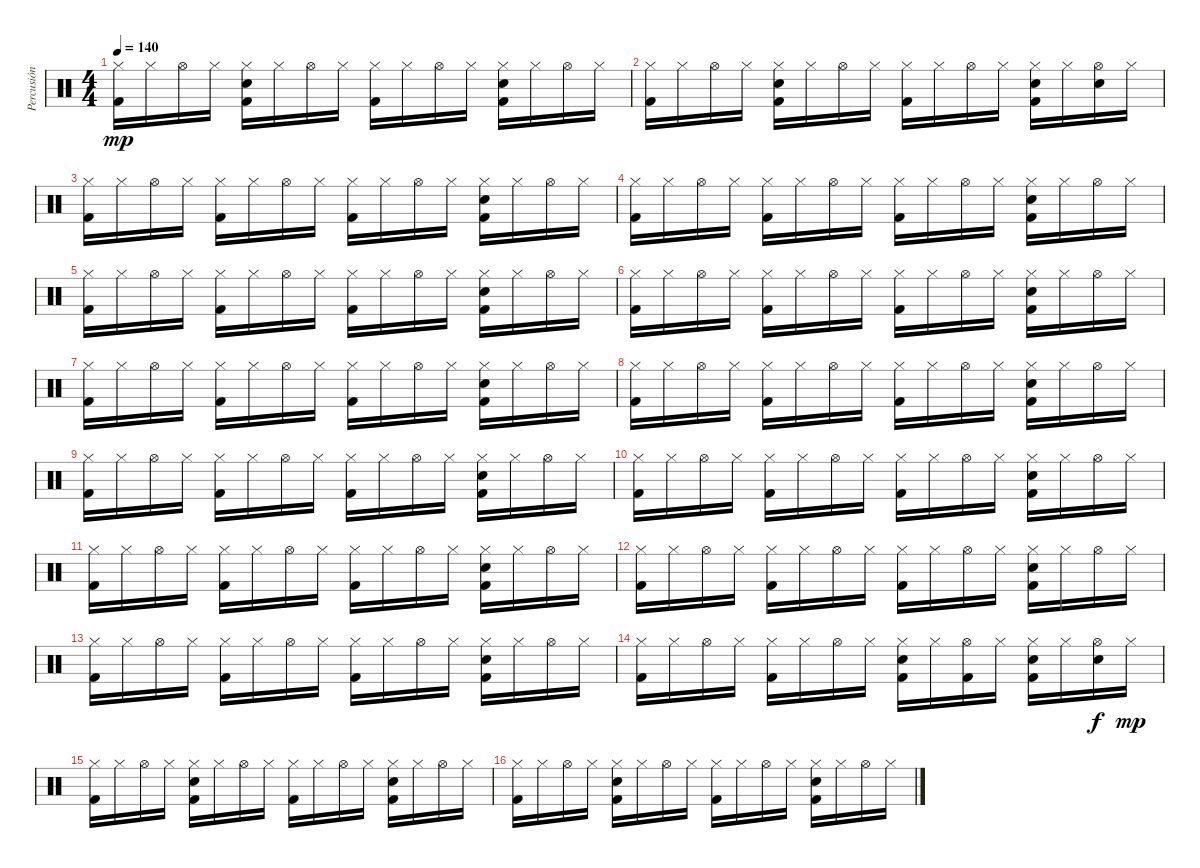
\track ("Percusión" "Percusión") {instrument percussion}
\staff {score}
\articulation defaults
\ts (4 4)
\tempo 140
\clef neutral
\ks c
("Hi-Hat (closed)" "Kick (hit) 2").16{dy mp} "Hi-Hat (closed)".16 "Hi-Hat (open)".16 "Hi-Hat (closed)".16 ("Hi-Hat (closed)" "Electric Snare (hit)" "Kick (hit) 2").16 "Hi-Hat (closed)".16 "Hi-Hat (open)".16 "Hi-Hat (closed)".16 ("Hi-Hat (closed)" "Kick (hit) 2").16 "Hi-Hat (closed)".16 "Hi-Hat (open)".16 "Hi-Hat (closed)".16 ("Hi-Hat (closed)" "Electric Snare (hit)" "Kick (hit) 2").16 "Hi-Hat (closed)".16 "Hi-Hat (open)".16 "Hi-Hat (closed)".16 |
("Hi-Hat (closed)" "Kick (hit) 2").16 "Hi-Hat (closed)".16 "Hi-Hat (open)".16 "Hi-Hat (closed)".16 ("Hi-Hat (closed)" "Electric Snare (hit)" "Kick (hit) 2").16 "Hi-Hat (closed)".16 "Hi-Hat (open)".16 "Hi-Hat (closed)".16 ("Hi-Hat (closed)" "Kick (hit) 2").16 "Hi-Hat (closed)".16 "Hi-Hat (open)".16 "Hi-Hat (closed)".16 ("Hi-Hat (closed)" "Electric Snare (hit)" "Kick (hit) 2").16 "Hi-Hat (closed)".16 ("Hi-Hat (open)" "Electric Snare (hit)").16 "Hi-Hat (closed)".16 |
("Hi-Hat (closed)" "Kick (hit) 2").16 "Hi-Hat (closed)".16 "Hi-Hat (open)".16 "Hi-Hat (closed)".16 ("Hi-Hat (closed)" "Kick (hit) 2").16 "Hi-Hat (closed)".16 "Hi-Hat (open)".16 "Hi-Hat (closed)".16 ("Hi-Hat (closed)" "Kick (hit) 2").16 "Hi-Hat (closed)".16 "Hi-Hat (open)".16 "Hi-Hat (closed)".16 ("Hi-Hat (closed)" "Electric Snare (hit)" "Kick (hit) 2").16 "Hi-Hat (closed)".16 "Hi-Hat (open)".16 "Hi-Hat (closed)".16 |
("Hi-Hat (closed)" "Kick (hit) 2").16 "Hi-Hat (closed)".16 "Hi-Hat (open)".16 "Hi-Hat (closed)".16 ("Hi-Hat (closed)" "Kick (hit) 2").16 "Hi-Hat (closed)".16 "Hi-Hat (open)".16 "Hi-Hat (closed)".16 ("Hi-Hat (closed)" "Kick (hit) 2").16 "Hi-Hat (closed)".16 "Hi-Hat (open)".16 "Hi-Hat (closed)".16 ("Hi-Hat (closed)" "Electric Snare (hit)" "Kick (hit) 2").16 "Hi-Hat (closed)".16 "Hi-Hat (open)".16 "Hi-Hat (closed)".16 |
("Hi-Hat (closed)" "Kick (hit) 2").16 "Hi-Hat (closed)".16 "Hi-Hat (open)".16 "Hi-Hat (closed)".16 ("Hi-Hat (closed)" "Kick (hit) 2").16 "Hi-Hat (closed)".16 "Hi-Hat (open)".16 "Hi-Hat (closed)".16 ("Hi-Hat (closed)" "Kick (hit) 2").16 "Hi-Hat (closed)".16 "Hi-Hat (open)".16 "Hi-Hat (closed)".16 ("Hi-Hat (closed)" "Electric Snare (hit)" "Kick (hit) 2").16 "Hi-Hat (closed)".16 "Hi-Hat (open)".16 "Hi-Hat (closed)".16 |
("Hi-Hat (closed)" "Kick (hit) 2").16 "Hi-Hat (closed)".16 "Hi-Hat (open)".16 "Hi-Hat (closed)".16 ("Hi-Hat (closed)" "Kick (hit) 2").16 "Hi-Hat (closed)".16 "Hi-Hat (open)".16 "Hi-Hat (closed)".16 ("Hi-Hat (closed)" "Kick (hit) 2").16 "Hi-Hat (closed)".16 "Hi-Hat (open)".16 "Hi-Hat (closed)".16 ("Hi-Hat (closed)" "Electric Snare (hit)" "Kick (hit) 2").16 "Hi-Hat (closed)".16 "Hi-Hat (open)".16 "Hi-Hat (closed)".16 |
("Hi-Hat (closed)" "Kick (hit) 2").16 "Hi-Hat (closed)".16 "Hi-Hat (open)".16 "Hi-Hat (closed)".16 ("Hi-Hat (closed)" "Kick (hit) 2").16 "Hi-Hat (closed)".16 "Hi-Hat (open)".16 "Hi-Hat (closed)".16 ("Hi-Hat (closed)" "Kick (hit) 2").16 "Hi-Hat (closed)".16 "Hi-Hat (open)".16 "Hi-Hat (closed)".16 ("Hi-Hat (closed)" "Electric Snare (hit)" "Kick (hit) 2").16 "Hi-Hat (closed)".16 "Hi-Hat (open)".16 "Hi-Hat (closed)".16 |
("Hi-Hat (closed)" "Kick (hit) 2").16 "Hi-Hat (closed)".16 "Hi-Hat (open)".16 "Hi-Hat (closed)".16 ("Hi-Hat (closed)" "Kick (hit) 2").16 "Hi-Hat (closed)".16 "Hi-Hat (open)".16 "Hi-Hat (closed)".16 ("Hi-Hat (closed)" "Kick (hit) 2").16 "Hi-Hat (closed)".16 "Hi-Hat (open)".16 "Hi-Hat (closed)".16 ("Hi-Hat (closed)" "Electric Snare (hit)" "Kick (hit) 2").16 "Hi-Hat (closed)".16 "Hi-Hat (open)".16 "Hi-Hat (closed)".16 |
("Hi-Hat (closed)" "Kick (hit) 2").16 "Hi-Hat (closed)".16 "Hi-Hat (open)".16 "Hi-Hat (closed)".16 ("Hi-Hat (closed)" "Kick (hit) 2").16 "Hi-Hat (closed)".16 "Hi-Hat (open)".16 "Hi-Hat (closed)".16 ("Hi-Hat (closed)" "Kick (hit) 2").16 "Hi-Hat (closed)".16 "Hi-Hat (open)".16 "Hi-Hat (closed)".16 ("Hi-Hat (closed)" "Electric Snare (hit)" "Kick (hit) 2").16 "Hi-Hat (closed)".16 "Hi-Hat (open)".16 "Hi-Hat (closed)".16 |
("Hi-Hat (closed)" "Kick (hit) 2").16 "Hi-Hat (closed)".16 "Hi-Hat (open)".16 "Hi-Hat (closed)".16 ("Hi-Hat (closed)" "Kick (hit) 2").16 "Hi-Hat (closed)".16 "Hi-Hat (open)".16 "Hi-Hat (closed)".16 ("Hi-Hat (closed)" "Kick (hit) 2").16 "Hi-Hat (closed)".16 "Hi-Hat (open)".16 "Hi-Hat (closed)".16 ("Hi-Hat (closed)" "Electric Snare (hit)" "Kick (hit) 2").16 "Hi-Hat (closed)".16 "Hi-Hat (open)".16 "Hi-Hat (closed)".16 |
("Hi-Hat (closed)" "Kick (hit) 2").16 "Hi-Hat (closed)".16 "Hi-Hat (open)".16 "Hi-Hat (closed)".16 ("Hi-Hat (closed)" "Kick (hit) 2").16 "Hi-Hat (closed)".16 "Hi-Hat (open)".16 "Hi-Hat (closed)".16 ("Hi-Hat (closed)" "Kick (hit) 2").16 "Hi-Hat (closed)".16 "Hi-Hat (open)".16 "Hi-Hat (closed)".16 ("Hi-Hat (closed)" "Electric Snare (hit)" "Kick (hit) 2").16 "Hi-Hat (closed)".16 "Hi-Hat (open)".16 "Hi-Hat (closed)".16 |
("Hi-Hat (closed)" "Kick (hit) 2").16 "Hi-Hat (closed)".16 "Hi-Hat (open)".16 "Hi-Hat (closed)".16 ("Hi-Hat (closed)" "Kick (hit) 2").16 "Hi-Hat (closed)".16 "Hi-Hat (open)".16 "Hi-Hat (closed)".16 ("Hi-Hat (closed)" "Kick (hit) 2").16 "Hi-Hat (closed)".16 "Hi-Hat (open)".16 "Hi-Hat (closed)".16 ("Hi-Hat (closed)" "Electric Snare (hit)" "Kick (hit) 2").16 "Hi-Hat (closed)".16 "Hi-Hat (open)".16 "Hi-Hat (closed)".16 |
("Hi-Hat (closed)" "Kick (hit) 2").16 "Hi-Hat (closed)".16 "Hi-Hat (open)".16 "Hi-Hat (closed)".16 ("Hi-Hat (closed)" "Kick (hit) 2").16 "Hi-Hat (closed)".16 "Hi-Hat (open)".16 "Hi-Hat (closed)".16 ("Hi-Hat (closed)" "Kick (hit) 2").16 "Hi-Hat (closed)".16 "Hi-Hat (open)".16 "Hi-Hat (closed)".16 ("Hi-Hat (closed)" "Electric Snare (hit)" "Kick (hit) 2").16 "Hi-Hat (closed)".16 "Hi-Hat (open)".16 "Hi-Hat (closed)".16 |
("Hi-Hat (closed)" "Kick (hit) 2").16 "Hi-Hat (closed)".16 "Hi-Hat (open)".16 "Hi-Hat (closed)".16 ("Hi-Hat (closed)" "Kick (hit) 2").16 "Hi-Hat (closed)".16 "Hi-Hat (open)".16 "Hi-Hat (closed)".16 ("Hi-Hat (closed)" "Electric Snare (hit)" "Kick (hit) 2").16 "Hi-Hat (closed)".16 ("Hi-Hat (open)" "Kick (hit) 2").16 "Hi-Hat (closed)".16 ("Hi-Hat (closed)" "Electric Snare (hit)" "Kick (hit) 2").16 "Hi-Hat (closed)".16 ("Hi-Hat (open)" "Electric Snare (hit)").16{dy f} "Hi-Hat (closed)".16{dy mp} |
("Hi-Hat (closed)" "Kick (hit) 2").16 "Hi-Hat (closed)".16 "Hi-Hat (open)".16 "Hi-Hat (closed)".16 ("Hi-Hat (closed)" "Electric Snare (hit)" "Kick (hit) 2").16 "Hi-Hat (closed)".16 "Hi-Hat (open)".16 "Hi-Hat (closed)".16 ("Hi-Hat (closed)" "Kick (hit) 2").16 "Hi-Hat (closed)".16 "Hi-Hat (open)".16 "Hi-Hat (closed)".16 ("Hi-Hat (closed)" "Electric Snare (hit)" "Kick (hit) 2").16 "Hi-Hat (closed)".16 "Hi-Hat (open)".16 "Hi-Hat (closed)".16 |
("Hi-Hat (closed)" "Kick (hit) 2").16 "Hi-Hat (closed)".16 "Hi-Hat (open)".16 "Hi-Hat (closed)".16 ("Hi-Hat (closed)" "Electric Snare (hit)" "Kick (hit) 2").16 "Hi-Hat (closed)".16 "Hi-Hat (open)".16 "Hi-Hat (closed)".16 ("Hi-Hat (closed)" "Kick (hit) 2").16 "Hi-Hat (closed)".16 "Hi-Hat (open)".16 "Hi-Hat (closed)".16 ("Hi-Hat (closed)" "Electric Snare (hit)" "Kick (hit) 2").16 "Hi-Hat (closed)".16 "Hi-Hat (open)".16 "Hi-Hat (closed)".16
